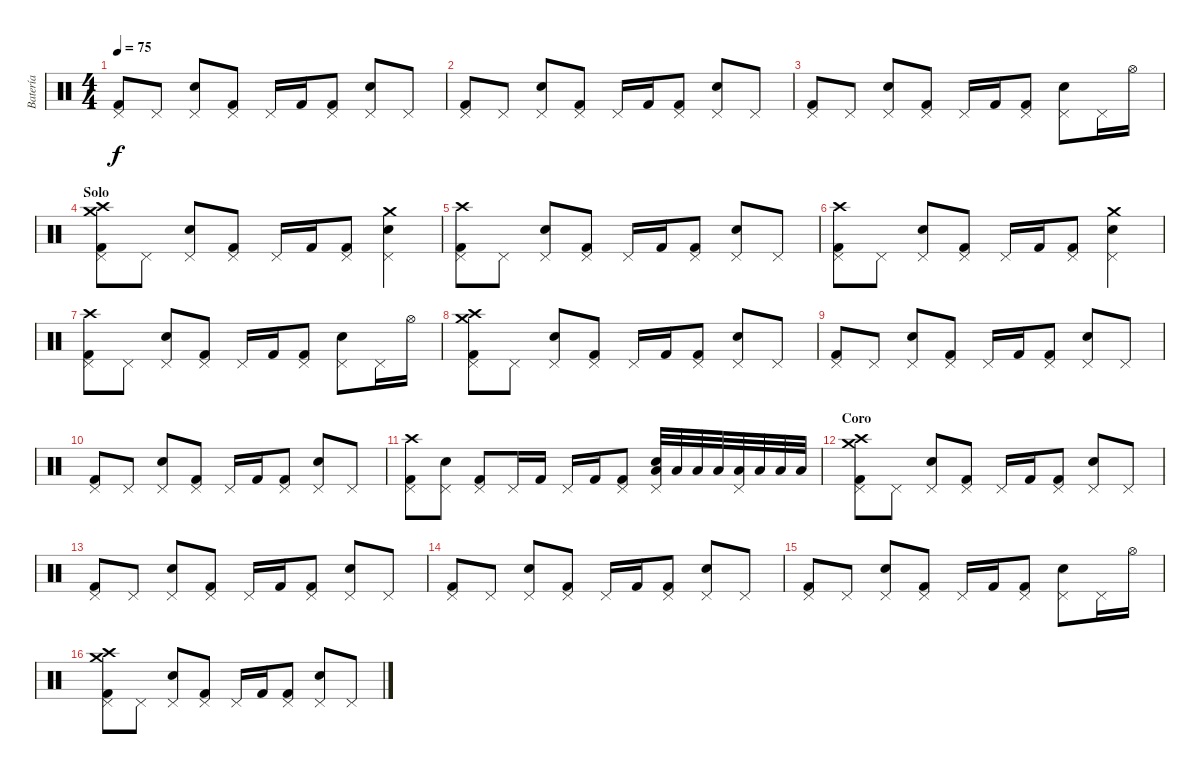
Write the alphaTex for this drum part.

\track ("Batería" "Batería") {instrument percussion}
\staff {score}
\articulation defaults
\ts (4 4)
\tempo 75
\clef neutral
\ks c
("Pedal Hi-Hat (hit)" "Kick (hit) 2").8{dy f} "Pedal Hi-Hat (hit)".8 ("Pedal Hi-Hat (hit)" "Electric Snare (hit)").8 ("Pedal Hi-Hat (hit)" "Kick (hit) 2").8 "Pedal Hi-Hat (hit)".16 "Kick (hit) 2".16 ("Pedal Hi-Hat (hit)" "Kick (hit) 2").8 ("Pedal Hi-Hat (hit)" "Electric Snare (hit)").8 "Pedal Hi-Hat (hit)".8 |
("Pedal Hi-Hat (hit)" "Kick (hit) 2").8 "Pedal Hi-Hat (hit)".8 ("Pedal Hi-Hat (hit)" "Electric Snare (hit)").8 ("Pedal Hi-Hat (hit)" "Kick (hit) 2").8 "Pedal Hi-Hat (hit)".16 "Kick (hit) 2".16 ("Pedal Hi-Hat (hit)" "Kick (hit) 2").8 ("Pedal Hi-Hat (hit)" "Electric Snare (hit)").8 "Pedal Hi-Hat (hit)".8 |
("Pedal Hi-Hat (hit)" "Kick (hit) 2").8 "Pedal Hi-Hat (hit)".8 ("Pedal Hi-Hat (hit)" "Electric Snare (hit)").8 ("Pedal Hi-Hat (hit)" "Kick (hit) 2").8 "Pedal Hi-Hat (hit)".16 "Kick (hit) 2".16 ("Pedal Hi-Hat (hit)" "Kick (hit) 2").8 ("Pedal Hi-Hat (hit)" "Electric Snare (hit)").8 "Pedal Hi-Hat (hit)".16 "Hi-Hat (open)".16 |
\section ("" "Solo")
("Crash high (hit)" "Crash medium (hit)" "Pedal Hi-Hat (hit)" "Kick (hit) 2").8 "Pedal Hi-Hat (hit)".8 ("Pedal Hi-Hat (hit)" "Electric Snare (hit)").8 ("Pedal Hi-Hat (hit)" "Kick (hit) 2").8 "Pedal Hi-Hat (hit)".16 "Kick (hit) 2".16 ("Pedal Hi-Hat (hit)" "Kick (hit) 2").8 ("Crash medium (hit)" "Pedal Hi-Hat (hit)" "Electric Snare (hit)").4 |
("Crash high (hit)" "Pedal Hi-Hat (hit)" "Kick (hit) 2").8 "Pedal Hi-Hat (hit)".8 ("Pedal Hi-Hat (hit)" "Electric Snare (hit)").8 ("Pedal Hi-Hat (hit)" "Kick (hit) 2").8 "Pedal Hi-Hat (hit)".16 "Kick (hit) 2".16 ("Pedal Hi-Hat (hit)" "Kick (hit) 2").8 ("Pedal Hi-Hat (hit)" "Electric Snare (hit)").8 "Pedal Hi-Hat (hit)".8 |
("Crash high (hit)" "Pedal Hi-Hat (hit)" "Kick (hit) 2").8 "Pedal Hi-Hat (hit)".8 ("Pedal Hi-Hat (hit)" "Electric Snare (hit)").8 ("Pedal Hi-Hat (hit)" "Kick (hit) 2").8 "Pedal Hi-Hat (hit)".16 "Kick (hit) 2".16 ("Pedal Hi-Hat (hit)" "Kick (hit) 2").8 ("Crash medium (hit)" "Pedal Hi-Hat (hit)" "Electric Snare (hit)").4 |
("Crash high (hit)" "Pedal Hi-Hat (hit)" "Kick (hit) 2").8 "Pedal Hi-Hat (hit)".8 ("Pedal Hi-Hat (hit)" "Electric Snare (hit)").8 ("Pedal Hi-Hat (hit)" "Kick (hit) 2").8 "Pedal Hi-Hat (hit)".16 "Kick (hit) 2".16 ("Pedal Hi-Hat (hit)" "Kick (hit) 2").8 ("Pedal Hi-Hat (hit)" "Electric Snare (hit)").8 "Pedal Hi-Hat (hit)".16 "Hi-Hat (open)".16 |
("Crash high (hit)" "Crash medium (hit)" "Pedal Hi-Hat (hit)" "Kick (hit) 2").8 "Pedal Hi-Hat (hit)".8 ("Pedal Hi-Hat (hit)" "Electric Snare (hit)").8 ("Pedal Hi-Hat (hit)" "Kick (hit) 2").8 "Pedal Hi-Hat (hit)".16 "Kick (hit) 2".16 ("Pedal Hi-Hat (hit)" "Kick (hit) 2").8 ("Pedal Hi-Hat (hit)" "Electric Snare (hit)").8 "Pedal Hi-Hat (hit)".8 |
("Pedal Hi-Hat (hit)" "Kick (hit) 2").8 "Pedal Hi-Hat (hit)".8 ("Pedal Hi-Hat (hit)" "Electric Snare (hit)").8 ("Pedal Hi-Hat (hit)" "Kick (hit) 2").8 "Pedal Hi-Hat (hit)".16 "Kick (hit) 2".16 ("Pedal Hi-Hat (hit)" "Kick (hit) 2").8 ("Pedal Hi-Hat (hit)" "Electric Snare (hit)").8 "Pedal Hi-Hat (hit)".8 |
("Pedal Hi-Hat (hit)" "Kick (hit) 2").8 "Pedal Hi-Hat (hit)".8 ("Pedal Hi-Hat (hit)" "Electric Snare (hit)").8 ("Pedal Hi-Hat (hit)" "Kick (hit) 2").8 "Pedal Hi-Hat (hit)".16 "Kick (hit) 2".16 ("Pedal Hi-Hat (hit)" "Kick (hit) 2").8 ("Pedal Hi-Hat (hit)" "Electric Snare (hit)").8 "Pedal Hi-Hat (hit)".8 |
("Crash high (hit)" "Pedal Hi-Hat (hit)" "Kick (hit) 2").8 ("Pedal Hi-Hat (hit)" "Electric Snare (hit)").8 ("Pedal Hi-Hat (hit)" "Kick (hit) 2").8 "Pedal Hi-Hat (hit)".16 "Kick (hit) 2".16 "Pedal Hi-Hat (hit)".16 "Kick (hit) 2".16 ("Pedal Hi-Hat (hit)" "Kick (hit) 2").8 ("Pedal Hi-Hat (hit)" "Electric Snare (hit)" "Low Floor Tom (hit)").32 "Low Floor Tom (hit)".32 "Low Floor Tom (hit)".32 "Low Floor Tom (hit)".32 ("Pedal Hi-Hat (hit)" "Low Floor Tom (hit)").32 "Low Floor Tom (hit)".32 "Low Floor Tom (hit)".32 "Low Floor Tom (hit)".32 |
\section ("" "Coro")
("Crash high (hit)" "Crash medium (hit)" "Pedal Hi-Hat (hit)" "Kick (hit) 2").8 "Pedal Hi-Hat (hit)".8 ("Pedal Hi-Hat (hit)" "Electric Snare (hit)").8 ("Pedal Hi-Hat (hit)" "Kick (hit) 2").8 "Pedal Hi-Hat (hit)".16 "Kick (hit) 2".16 ("Pedal Hi-Hat (hit)" "Kick (hit) 2").8 ("Pedal Hi-Hat (hit)" "Electric Snare (hit)").8 "Pedal Hi-Hat (hit)".8 |
("Pedal Hi-Hat (hit)" "Kick (hit) 2").8 "Pedal Hi-Hat (hit)".8 ("Pedal Hi-Hat (hit)" "Electric Snare (hit)").8 ("Pedal Hi-Hat (hit)" "Kick (hit) 2").8 "Pedal Hi-Hat (hit)".16 "Kick (hit) 2".16 ("Pedal Hi-Hat (hit)" "Kick (hit) 2").8 ("Pedal Hi-Hat (hit)" "Electric Snare (hit)").8 "Pedal Hi-Hat (hit)".8 |
("Pedal Hi-Hat (hit)" "Kick (hit) 2").8 "Pedal Hi-Hat (hit)".8 ("Pedal Hi-Hat (hit)" "Electric Snare (hit)").8 ("Pedal Hi-Hat (hit)" "Kick (hit) 2").8 "Pedal Hi-Hat (hit)".16 "Kick (hit) 2".16 ("Pedal Hi-Hat (hit)" "Kick (hit) 2").8 ("Pedal Hi-Hat (hit)" "Electric Snare (hit)").8 "Pedal Hi-Hat (hit)".8 |
("Pedal Hi-Hat (hit)" "Kick (hit) 2").8 "Pedal Hi-Hat (hit)".8 ("Pedal Hi-Hat (hit)" "Electric Snare (hit)").8 ("Pedal Hi-Hat (hit)" "Kick (hit) 2").8 "Pedal Hi-Hat (hit)".16 "Kick (hit) 2".16 ("Pedal Hi-Hat (hit)" "Kick (hit) 2").8 ("Pedal Hi-Hat (hit)" "Electric Snare (hit)").8 "Pedal Hi-Hat (hit)".16 "Hi-Hat (open)".16 |
("Crash high (hit)" "Crash medium (hit)" "Pedal Hi-Hat (hit)" "Kick (hit) 2").8 "Pedal Hi-Hat (hit)".8 ("Pedal Hi-Hat (hit)" "Electric Snare (hit)").8 ("Pedal Hi-Hat (hit)" "Kick (hit) 2").8 "Pedal Hi-Hat (hit)".16 "Kick (hit) 2".16 ("Pedal Hi-Hat (hit)" "Kick (hit) 2").8 ("Pedal Hi-Hat (hit)" "Electric Snare (hit)").8 "Pedal Hi-Hat (hit)".8
